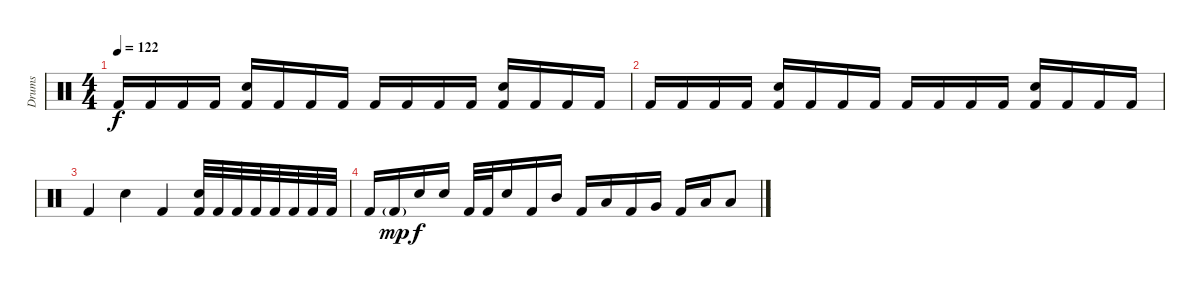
\track ("Drums" "Drums") {instrument percussion}
\staff {score}
\articulation defaults
\ts (4 4)
\tempo 122
\clef neutral
\ks c "Kick (hit) 2".16{dy f} "Kick (hit) 2".16 "Kick (hit) 2".16 "Kick (hit) 2".16
("Snare (hit) 2" "Kick (hit) 2").16 "Kick (hit) 2".16 "Kick (hit) 2".16 "Kick (hit) 2".16 "Kick (hit) 2".16 "Kick (hit) 2".16 "Kick (hit) 2".16 "Kick (hit) 2".16 ("Snare (hit) 2" "Kick (hit) 2").16 "Kick (hit) 2".16 "Kick (hit) 2".16 "Kick (hit) 2".16 |
"Kick (hit) 2".16 "Kick (hit) 2".16 "Kick (hit) 2".16 "Kick (hit) 2".16 ("Snare (hit) 2" "Kick (hit) 2").16 "Kick (hit) 2".16 "Kick (hit) 2".16 "Kick (hit) 2".16 "Kick (hit) 2".16 "Kick (hit) 2".16 "Kick (hit) 2".16 "Kick (hit) 2".16 ("Snare (hit) 2" "Kick (hit) 2").16 "Kick (hit) 2".16 "Kick (hit) 2".16 "Kick (hit) 2".16 |
"Kick (hit) 2".4 "Snare (hit) 2".4 "Kick (hit) 2".4 ("Snare (hit) 2" "Kick (hit) 2").32 "Kick (hit) 2".32 "Kick (hit) 2".32 "Kick (hit) 2".32 "Kick (hit) 2".32 "Kick (hit) 2".32 "Kick (hit) 2".32 "Kick (hit) 2".32 |
"Kick (hit) 2".16 "Kick (hit) 2"{g}.16{dy mp} "Snare (hit) 2".16{dy f} "Snare (hit) 2".16 "Kick (hit) 2".32 "Kick (hit) 2".32 "Snare (hit) 2".16 "Kick (hit) 2".16 "Mid Tom (hit)".16 "Kick (hit) 2".16 "Low Tom (hit)".16 "Kick (hit) 2".16 "Very Low Tom (hit)".16 "Kick (hit) 2".16 "Low Floor Tom (hit)".16 "Low Floor Tom (hit)".8
